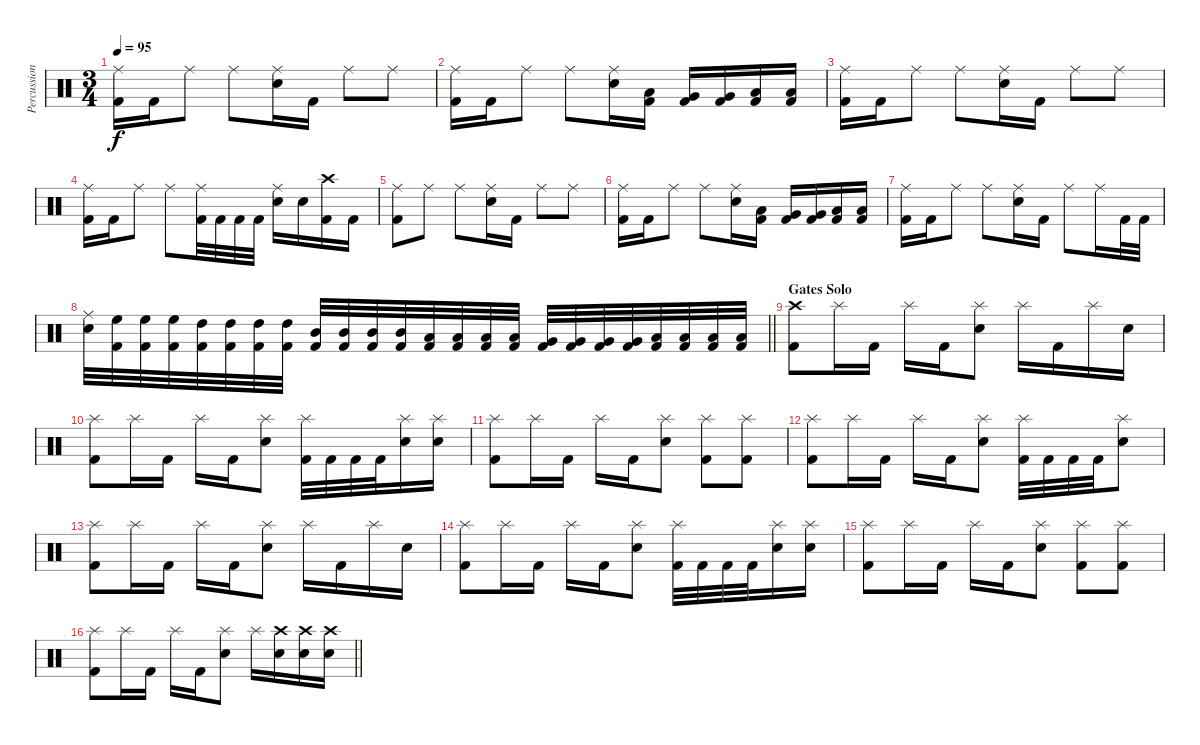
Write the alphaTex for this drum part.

\track ("Percussion Mike" "Percussion") {instrument percussion}
\staff {score}
\articulation defaults
\ts (3 4)
\tempo 95
\clef neutral
\ks c
("Ride (middle)" "Kick (hit) 2").16{dy f} "Kick (hit) 2".16 "Ride (middle)".8 "Ride (middle)".8 ("Ride (middle)" "Snare (hit) 2").16 "Kick (hit) 2".16 "Ride (middle)".8 "Ride (middle)".8 |
("Ride (middle)" "Kick (hit) 2").16 "Kick (hit) 2".16 "Ride (middle)".8 "Ride (middle)".8 ("Ride (middle)" "Snare (hit) 2").16 ("Low Tom (hit)" "Kick (hit) 2").16 ("Very Low Tom (hit)" "Kick (hit) 2").16 ("Very Low Tom (hit)" "Kick (hit) 2").16 ("Low Floor Tom (hit)" "Kick (hit) 2").16 ("Low Floor Tom (hit)" "Kick (hit) 2").16 |
("Ride (middle)" "Kick (hit) 2").16 "Kick (hit) 2".16 "Ride (middle)".8 "Ride (middle)".8 ("Ride (middle)" "Snare (hit) 2").16 "Kick (hit) 2".16 "Ride (middle)".8 "Ride (middle)".8 |
("Ride (middle)" "Kick (hit) 2").16 "Kick (hit) 2".16 "Ride (middle)".8 "Ride (middle)".8 ("Ride (middle)" "Kick (hit) 2").32 "Kick (hit) 2".32 "Kick (hit) 2".32 "Kick (hit) 2".32 ("Ride (middle)" "Snare (hit) 2").16 "Snare (hit) 2".16 ("Crash high (hit)" "Kick (hit) 2").16 "Kick (hit) 2".16 |
("Ride (middle)" "Kick (hit) 2").8 "Ride (middle)".8 "Ride (middle)".8 ("Ride (middle)" "Snare (hit) 2").16 "Kick (hit) 2".16 "Ride (middle)".8 "Ride (middle)".8 |
("Ride (middle)" "Kick (hit) 2").16 "Kick (hit) 2".16 "Ride (middle)".8 "Ride (middle)".8 ("Ride (middle)" "Snare (hit) 2").16 ("Low Tom (hit)" "Kick (hit) 2").16 ("Very Low Tom (hit)" "Kick (hit) 2").16 ("Very Low Tom (hit)" "Kick (hit) 2").16 ("Low Floor Tom (hit)" "Kick (hit) 2").16 ("Low Floor Tom (hit)" "Kick (hit) 2").16 |
("Ride (middle)" "Kick (hit) 2").16 "Kick (hit) 2".16 "Ride (middle)".8 "Ride (middle)".8 ("Ride (middle)" "Snare (hit) 2").16 "Kick (hit) 2".16 "Ride (middle)".8 "Ride (middle)".16 "Kick (hit) 2".32 "Kick (hit) 2".32 |
\barLineRight lightlight
("Ride (middle)" "Snare (hit) 2").32 ("High Floor Tom (hit)" "Kick (hit) 2").32 ("High Floor Tom (hit)" "Kick (hit) 2").32 ("High Floor Tom (hit)" "Kick (hit) 2").32 ("High Tom (hit)" "Kick (hit) 2").32 ("High Tom (hit)" "Kick (hit) 2").32 ("High Tom (hit)" "Kick (hit) 2").32 ("High Tom (hit)" "Kick (hit) 2").32 ("Mid Tom (hit)" "Kick (hit) 2").32 ("Mid Tom (hit)" "Kick (hit) 2").32 ("Mid Tom (hit)" "Kick (hit) 2").32 ("Mid Tom (hit)" "Kick (hit) 2").32 ("Low Tom (hit)" "Kick (hit) 2").32 ("Low Tom (hit)" "Kick (hit) 2").32 ("Low Tom (hit)" "Kick (hit) 2").32 ("Low Tom (hit)" "Kick (hit) 2").32 ("Very Low Tom (hit)" "Kick (hit) 2").32 ("Very Low Tom (hit)" "Kick (hit) 2").32 ("Very Low Tom (hit)" "Kick (hit) 2").32 ("Very Low Tom (hit)" "Kick (hit) 2").32 ("Low Floor Tom (hit)" "Kick (hit) 2").32 ("Low Floor Tom (hit)" "Kick (hit) 2").32 ("Low Floor Tom (hit)" "Kick (hit) 2").32 ("Low Floor Tom (hit)" "Kick (hit) 2").32 |
\section ("" "Gates Solo")
("Crash high (hit)" "Kick (hit) 2").8 "Splash (hit)".16 "Kick (hit) 2".16 "Splash (hit)".16 "Kick (hit) 2".16 ("Splash (hit)" "Snare (hit) 2").8 "Splash (hit)".16 "Kick (hit) 2".16 "Splash (hit)".16 "Snare (hit) 2".16 |
("Splash (hit)" "Kick (hit) 2").8 "Splash (hit)".16 "Kick (hit) 2".16 "Splash (hit)".16 "Kick (hit) 2".16 ("Splash (hit)" "Snare (hit) 2").8 ("Splash (hit)" "Kick (hit) 2").32 "Kick (hit) 2".32 "Kick (hit) 2".32 "Kick (hit) 2".32 ("Splash (hit)" "Snare (hit) 2").16 ("Splash (hit)" "Snare (hit) 2").16 |
("Splash (hit)" "Kick (hit) 2").8 "Splash (hit)".16 "Kick (hit) 2".16 "Splash (hit)".16 "Kick (hit) 2".16 ("Splash (hit)" "Snare (hit) 2").8 ("Splash (hit)" "Kick (hit) 2").8 ("Splash (hit)" "Kick (hit) 2").8 |
("Splash (hit)" "Kick (hit) 2").8 "Splash (hit)".16 "Kick (hit) 2".16 "Splash (hit)".16 "Kick (hit) 2".16 ("Splash (hit)" "Snare (hit) 2").8 ("Splash (hit)" "Kick (hit) 2").32 "Kick (hit) 2".32 "Kick (hit) 2".32 "Kick (hit) 2".32 ("Splash (hit)" "Snare (hit) 2").8 |
("Splash (hit)" "Kick (hit) 2").8 "Splash (hit)".16 "Kick (hit) 2".16 "Splash (hit)".16 "Kick (hit) 2".16 ("Splash (hit)" "Snare (hit) 2").8 "Splash (hit)".16 "Kick (hit) 2".16 "Splash (hit)".16 "Snare (hit) 2".16 |
("Splash (hit)" "Kick (hit) 2").8 "Splash (hit)".16 "Kick (hit) 2".16 "Splash (hit)".16 "Kick (hit) 2".16 ("Splash (hit)" "Snare (hit) 2").8 ("Splash (hit)" "Kick (hit) 2").32 "Kick (hit) 2".32 "Kick (hit) 2".32 "Kick (hit) 2".32 ("Splash (hit)" "Snare (hit) 2").16 ("Splash (hit)" "Snare (hit) 2").16 |
("Splash (hit)" "Kick (hit) 2").8 "Splash (hit)".16 "Kick (hit) 2".16 "Splash (hit)".16 "Kick (hit) 2".16 ("Splash (hit)" "Snare (hit) 2").8 ("Splash (hit)" "Kick (hit) 2").8 ("Splash (hit)" "Kick (hit) 2").8 |
\barLineRight lightlight
("Splash (hit)" "Kick (hit) 2").8 "Splash (hit)".16 "Kick (hit) 2".16 "Splash (hit)".16 "Kick (hit) 2".16 ("Splash (hit)" "Snare (hit) 2").8 "Splash (hit)".16 ("Crash high (hit)" "Snare (hit) 2").16 ("Crash high (hit)" "Snare (hit) 2").16 ("Crash high (hit)" "Snare (hit) 2").16
